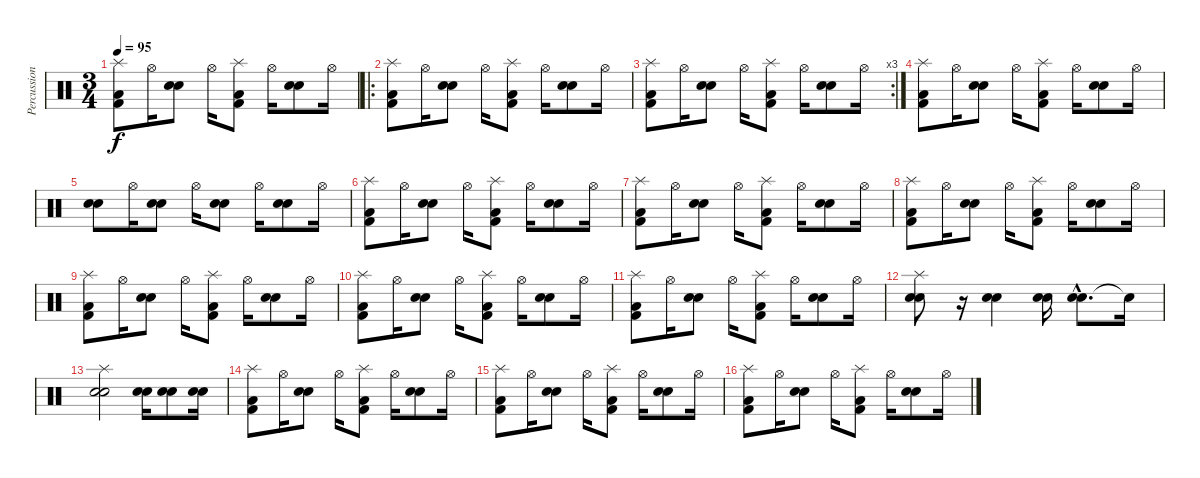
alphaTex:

\track ("Percussions" "Percussion") {instrument percussion}
\staff {score}
\articulation defaults
\ts (3 4)
\tempo 95
\clef neutral
\ks c
("Splash (hit)" "Kick (hit) 2" "Low Floor Tom (hit)").8{dy f} "Hi-Hat (open)".16 ("Snare (hit) 2" "Electric Snare (hit)").8 "Hi-Hat (open)".16 ("Splash (hit)" "Kick (hit) 2" "Low Floor Tom (hit)").8 "Hi-Hat (open)".16 ("Snare (hit) 2" "Electric Snare (hit)").8 "Hi-Hat (open)".16 |
\ro
("Splash (hit)" "Kick (hit) 2" "Low Floor Tom (hit)").8 "Hi-Hat (open)".16 ("Snare (hit) 2" "Electric Snare (hit)").8 "Hi-Hat (open)".16 ("Splash (hit)" "Kick (hit) 2" "Low Floor Tom (hit)").8 "Hi-Hat (open)".16 ("Snare (hit) 2" "Electric Snare (hit)").8 "Hi-Hat (open)".16 |
\rc 3
("Splash (hit)" "Kick (hit) 2" "Low Floor Tom (hit)").8 "Hi-Hat (open)".16 ("Snare (hit) 2" "Electric Snare (hit)").8 "Hi-Hat (open)".16 ("Splash (hit)" "Kick (hit) 2" "Low Floor Tom (hit)").8 "Hi-Hat (open)".16 ("Snare (hit) 2" "Electric Snare (hit)").8 "Hi-Hat (open)".16 |
("Splash (hit)" "Kick (hit) 2" "Low Floor Tom (hit)").8 "Hi-Hat (open)".16 ("Snare (hit) 2" "Electric Snare (hit)").8 "Hi-Hat (open)".16 ("Splash (hit)" "Kick (hit) 2" "Low Floor Tom (hit)").8 "Hi-Hat (open)".16 ("Snare (hit) 2" "Electric Snare (hit)").8 "Hi-Hat (open)".16 |
("Snare (hit) 2" "Electric Snare (hit)").8 "Hi-Hat (open)".16 ("Snare (hit) 2" "Electric Snare (hit)").8 "Hi-Hat (open)".16 ("Snare (hit) 2" "Electric Snare (hit)").8 "Hi-Hat (open)".16 ("Snare (hit) 2" "Electric Snare (hit)").8 "Hi-Hat (open)".16 |
("Splash (hit)" "Kick (hit) 2" "Low Floor Tom (hit)").8 "Hi-Hat (open)".16 ("Snare (hit) 2" "Electric Snare (hit)").8 "Hi-Hat (open)".16 ("Splash (hit)" "Kick (hit) 2" "Low Floor Tom (hit)").8 "Hi-Hat (open)".16 ("Snare (hit) 2" "Electric Snare (hit)").8 "Hi-Hat (open)".16 |
("Splash (hit)" "Kick (hit) 2" "Low Floor Tom (hit)").8 "Hi-Hat (open)".16 ("Snare (hit) 2" "Electric Snare (hit)").8 "Hi-Hat (open)".16 ("Splash (hit)" "Kick (hit) 2" "Low Floor Tom (hit)").8 "Hi-Hat (open)".16 ("Snare (hit) 2" "Electric Snare (hit)").8 "Hi-Hat (open)".16 |
("Splash (hit)" "Kick (hit) 2" "Low Floor Tom (hit)").8 "Hi-Hat (open)".16 ("Snare (hit) 2" "Electric Snare (hit)").8 "Hi-Hat (open)".16 ("Splash (hit)" "Kick (hit) 2" "Low Floor Tom (hit)").8 "Hi-Hat (open)".16 ("Snare (hit) 2" "Electric Snare (hit)").8 "Hi-Hat (open)".16 |
("Splash (hit)" "Kick (hit) 2" "Low Floor Tom (hit)").8 "Hi-Hat (open)".16 ("Snare (hit) 2" "Electric Snare (hit)").8 "Hi-Hat (open)".16 ("Splash (hit)" "Kick (hit) 2" "Low Floor Tom (hit)").8 "Hi-Hat (open)".16 ("Snare (hit) 2" "Electric Snare (hit)").8 "Hi-Hat (open)".16 |
("Splash (hit)" "Kick (hit) 2" "Low Floor Tom (hit)").8 "Hi-Hat (open)".16 ("Snare (hit) 2" "Electric Snare (hit)").8 "Hi-Hat (open)".16 ("Splash (hit)" "Kick (hit) 2" "Low Floor Tom (hit)").8 "Hi-Hat (open)".16 ("Snare (hit) 2" "Electric Snare (hit)").8 "Hi-Hat (open)".16 |
("Splash (hit)" "Kick (hit) 2" "Low Floor Tom (hit)").8 "Hi-Hat (open)".16 ("Snare (hit) 2" "Electric Snare (hit)").8 "Hi-Hat (open)".16 ("Splash (hit)" "Kick (hit) 2" "Low Floor Tom (hit)").8 "Hi-Hat (open)".16 ("Snare (hit) 2" "Electric Snare (hit)").8 "Hi-Hat (open)".16 |
("Splash (hit)" "Snare (hit) 2" "Electric Snare (hit)").8 r.16 ("Snare (hit) 2" "Electric Snare (hit)").4 ("Snare (hit) 2" "Electric Snare (hit)").16 ("Snare (hit) 2"{hac} "Electric Snare (hit)"{hac}).8{d} "Electric Snare (hit)"{t}.16 |
("Splash (hit)" "Snare (hit) 2" "Electric Snare (hit)").2 ("Snare (hit) 2" "Electric Snare (hit)").16 ("Snare (hit) 2" "Electric Snare (hit)").8 ("Snare (hit) 2" "Electric Snare (hit)").16 |
("Splash (hit)" "Kick (hit) 2" "Low Floor Tom (hit)").8 "Hi-Hat (open)".16 ("Snare (hit) 2" "Electric Snare (hit)").8 "Hi-Hat (open)".16 ("Splash (hit)" "Kick (hit) 2" "Low Floor Tom (hit)").8 "Hi-Hat (open)".16 ("Snare (hit) 2" "Electric Snare (hit)").8 "Hi-Hat (open)".16 |
("Splash (hit)" "Kick (hit) 2" "Low Floor Tom (hit)").8 "Hi-Hat (open)".16 ("Snare (hit) 2" "Electric Snare (hit)").8 "Hi-Hat (open)".16 ("Splash (hit)" "Kick (hit) 2" "Low Floor Tom (hit)").8 "Hi-Hat (open)".16 ("Snare (hit) 2" "Electric Snare (hit)").8 "Hi-Hat (open)".16 |
("Splash (hit)" "Kick (hit) 2" "Low Floor Tom (hit)").8 "Hi-Hat (open)".16 ("Snare (hit) 2" "Electric Snare (hit)").8 "Hi-Hat (open)".16 ("Splash (hit)" "Kick (hit) 2" "Low Floor Tom (hit)").8 "Hi-Hat (open)".16 ("Snare (hit) 2" "Electric Snare (hit)").8 "Hi-Hat (open)".16
